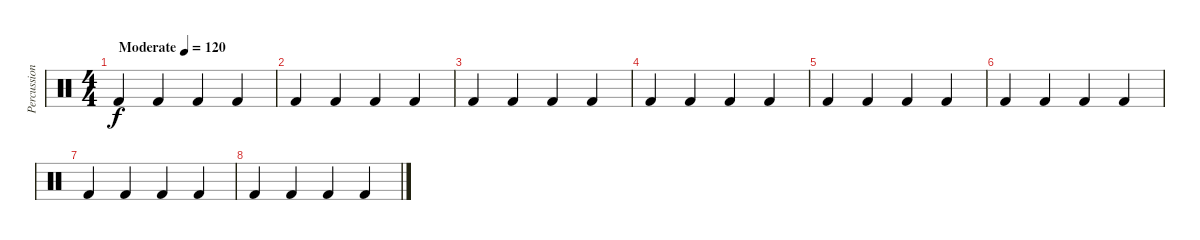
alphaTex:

\track ("Percussion" "Percussion") {instrument percussion}
\staff {score}
\articulation defaults
\ts (4 4)
\tempo (120 "Moderate")
\clef neutral
\ks c "Kick (hit) 2".4{dy f} "Kick (hit) 2".4 "Kick (hit) 2".4 "Kick (hit) 2".4
|
"Kick (hit) 2".4 "Kick (hit) 2".4 "Kick (hit) 2".4 "Kick (hit) 2".4 |
"Kick (hit) 2".4 "Kick (hit) 2".4 "Kick (hit) 2".4 "Kick (hit) 2".4 |
"Kick (hit) 2".4 "Kick (hit) 2".4 "Kick (hit) 2".4 "Kick (hit) 2".4 |
"Kick (hit) 2".4 "Kick (hit) 2".4 "Kick (hit) 2".4 "Kick (hit) 2".4 |
"Kick (hit) 2".4 "Kick (hit) 2".4 "Kick (hit) 2".4 "Kick (hit) 2".4 |
"Kick (hit) 2".4 "Kick (hit) 2".4 "Kick (hit) 2".4 "Kick (hit) 2".4 |
"Kick (hit) 2".4 "Kick (hit) 2".4 "Kick (hit) 2".4 "Kick (hit) 2".4
